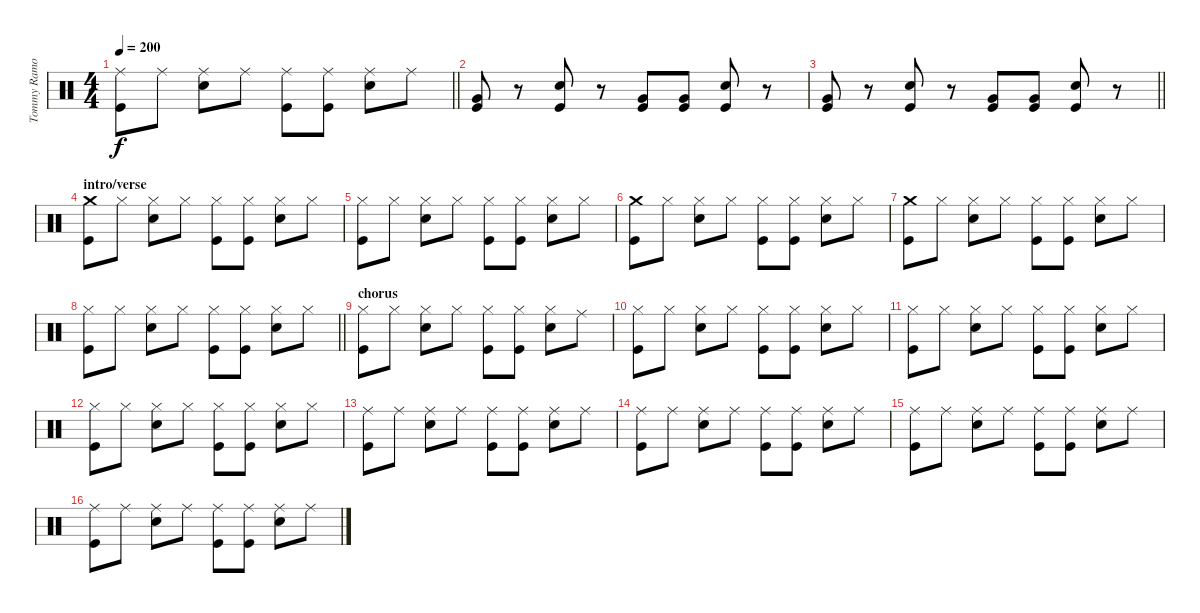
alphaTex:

\track ("Tommy Ramone" "Tommy Ramo") {instrument percussion}
\staff {score}
\articulation defaults
\ts (4 4)
\tempo 200
\clef neutral
\barLineRight lightlight
\ks c
("Ride (middle)" "Kick (hit)").8{dy f} "Ride (middle)".8 ("Ride (middle)" "Electric Snare (hit)").8 "Ride (middle)".8 ("Ride (middle)" "Kick (hit)").8 ("Ride (middle)" "Kick (hit)").8 ("Ride (middle)" "Electric Snare (hit)").8 "Ride (middle)".8 |
("Very Low Tom (hit)" "Kick (hit)").8 r.8 ("Electric Snare (hit)" "Kick (hit)").8 r.8 ("Very Low Tom (hit)" "Kick (hit)").8 ("Very Low Tom (hit)" "Kick (hit)").8 ("Electric Snare (hit)" "Kick (hit)").8 r.8 |
\barLineRight lightlight
("Very Low Tom (hit)" "Kick (hit)").8 r.8 ("Electric Snare (hit)" "Kick (hit)").8 r.8 ("Very Low Tom (hit)" "Kick (hit)").8 ("Very Low Tom (hit)" "Kick (hit)").8 ("Electric Snare (hit)" "Kick (hit)").8 r.8 |
\section ("" "intro/verse")
("Crash medium (hit)" "Kick (hit)").8 "Hi-Hat (closed)".8 ("Hi-Hat (closed)" "Electric Snare (hit)").8 "Hi-Hat (closed)".8 ("Hi-Hat (closed)" "Kick (hit)").8 ("Hi-Hat (closed)" "Kick (hit)").8 ("Hi-Hat (closed)" "Electric Snare (hit)").8 "Hi-Hat (closed)".8 |
("Hi-Hat (closed)" "Kick (hit)").8 "Hi-Hat (closed)".8 ("Hi-Hat (closed)" "Electric Snare (hit)").8 "Hi-Hat (closed)".8 ("Hi-Hat (closed)" "Kick (hit)").8 ("Hi-Hat (closed)" "Kick (hit)").8 ("Hi-Hat (closed)" "Electric Snare (hit)").8 "Hi-Hat (closed)".8 |
("Crash medium (hit)" "Kick (hit)").8 "Hi-Hat (closed)".8 ("Hi-Hat (closed)" "Electric Snare (hit)").8 "Hi-Hat (closed)".8 ("Hi-Hat (closed)" "Kick (hit)").8 ("Hi-Hat (closed)" "Kick (hit)").8 ("Hi-Hat (closed)" "Electric Snare (hit)").8 "Hi-Hat (closed)".8 |
("Crash medium (hit)" "Kick (hit)").8 "Hi-Hat (closed)".8 ("Hi-Hat (closed)" "Electric Snare (hit)").8 "Hi-Hat (closed)".8 ("Hi-Hat (closed)" "Kick (hit)").8 ("Hi-Hat (closed)" "Kick (hit)").8 ("Hi-Hat (closed)" "Electric Snare (hit)").8 "Hi-Hat (closed)".8 |
\barLineRight lightlight
("Hi-Hat (closed)" "Kick (hit)").8 "Hi-Hat (closed)".8 ("Hi-Hat (closed)" "Electric Snare (hit)").8 "Hi-Hat (closed)".8 ("Hi-Hat (closed)" "Kick (hit)").8 ("Hi-Hat (closed)" "Kick (hit)").8 ("Hi-Hat (closed)" "Electric Snare (hit)").8 "Hi-Hat (closed)".8 |
\section ("" "chorus")
("Hi-Hat (closed)" "Kick (hit)").8 "Hi-Hat (closed)".8 ("Hi-Hat (closed)" "Electric Snare (hit)").8 "Hi-Hat (closed)".8 ("Hi-Hat (closed)" "Kick (hit)").8 ("Hi-Hat (closed)" "Kick (hit)").8 ("Hi-Hat (closed)" "Electric Snare (hit)").8 "Ride (middle)".8 |
("Hi-Hat (closed)" "Kick (hit)").8 "Hi-Hat (closed)".8 ("Hi-Hat (closed)" "Electric Snare (hit)").8 "Hi-Hat (closed)".8 ("Hi-Hat (closed)" "Kick (hit)").8 ("Hi-Hat (closed)" "Kick (hit)").8 ("Hi-Hat (closed)" "Electric Snare (hit)").8 "Hi-Hat (closed)".8 |
("Hi-Hat (closed)" "Kick (hit)").8 "Hi-Hat (closed)".8 ("Hi-Hat (closed)" "Electric Snare (hit)").8 "Hi-Hat (closed)".8 ("Hi-Hat (closed)" "Kick (hit)").8 ("Hi-Hat (closed)" "Kick (hit)").8 ("Hi-Hat (closed)" "Electric Snare (hit)").8 "Hi-Hat (closed)".8 |
("Hi-Hat (closed)" "Kick (hit)").8 "Hi-Hat (closed)".8 ("Hi-Hat (closed)" "Electric Snare (hit)").8 "Hi-Hat (closed)".8 ("Hi-Hat (closed)" "Kick (hit)").8 ("Hi-Hat (closed)" "Kick (hit)").8 ("Hi-Hat (closed)" "Electric Snare (hit)").8 "Hi-Hat (closed)".8 |
("Ride (middle)" "Kick (hit)").8 "Ride (middle)".8 ("Ride (middle)" "Electric Snare (hit)").8 "Ride (middle)".8 ("Ride (middle)" "Kick (hit)").8 ("Ride (middle)" "Kick (hit)").8 ("Ride (middle)" "Electric Snare (hit)").8 "Ride (middle)".8 |
("Ride (middle)" "Kick (hit)").8 "Ride (middle)".8 ("Ride (middle)" "Electric Snare (hit)").8 "Ride (middle)".8 ("Ride (middle)" "Kick (hit)").8 ("Ride (middle)" "Kick (hit)").8 ("Ride (middle)" "Electric Snare (hit)").8 "Ride (middle)".8 |
("Ride (middle)" "Kick (hit)").8 "Ride (middle)".8 ("Ride (middle)" "Electric Snare (hit)").8 "Ride (middle)".8 ("Ride (middle)" "Kick (hit)").8 ("Ride (middle)" "Kick (hit)").8 ("Ride (middle)" "Electric Snare (hit)").8 "Ride (middle)".8 |
("Ride (middle)" "Kick (hit)").8 "Ride (middle)".8 ("Ride (middle)" "Electric Snare (hit)").8 "Ride (middle)".8 ("Ride (middle)" "Kick (hit)").8 ("Ride (middle)" "Kick (hit)").8 ("Ride (middle)" "Electric Snare (hit)").8 "Ride (middle)".8
